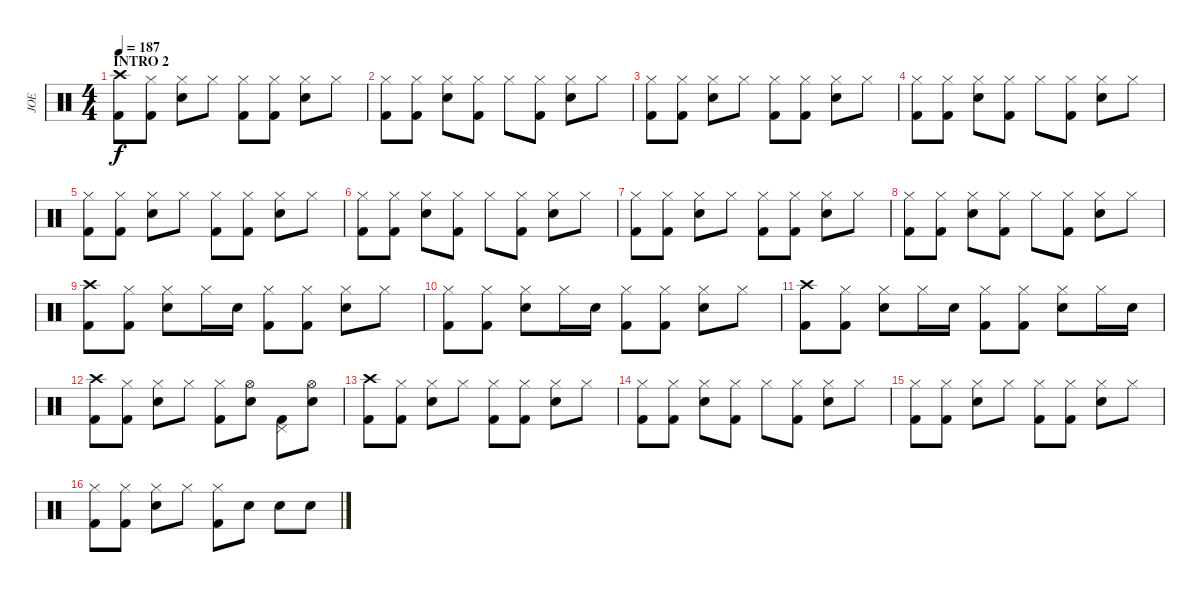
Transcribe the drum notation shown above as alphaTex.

\track ("JOE" "JOE") {instrument percussion}
\staff {score}
\articulation defaults
\ts (4 4)
\section ("" "INTRO 2")
\tempo 187
\clef neutral
\ks c
("Crash high (hit)" "Kick (hit) 2").8{dy f} ("Hi-Hat (closed)" "Kick (hit) 2").8 ("Hi-Hat (closed)" "Snare (hit) 2").8 "Hi-Hat (closed)".8 ("Hi-Hat (closed)" "Kick (hit) 2").8 ("Hi-Hat (closed)" "Kick (hit) 2").8 ("Hi-Hat (closed)" "Snare (hit) 2").8 "Hi-Hat (closed)".8 |
("Hi-Hat (closed)" "Kick (hit) 2").8 ("Hi-Hat (closed)" "Kick (hit) 2").8 ("Hi-Hat (closed)" "Snare (hit) 2").8 ("Hi-Hat (closed)" "Kick (hit) 2").8 "Hi-Hat (closed)".8 ("Hi-Hat (closed)" "Kick (hit) 2").8 ("Hi-Hat (closed)" "Snare (hit) 2").8 "Hi-Hat (closed)".8 |
("Hi-Hat (closed)" "Kick (hit) 2").8 ("Hi-Hat (closed)" "Kick (hit) 2").8 ("Hi-Hat (closed)" "Snare (hit) 2").8 "Hi-Hat (closed)".8 ("Hi-Hat (closed)" "Kick (hit) 2").8 ("Hi-Hat (closed)" "Kick (hit) 2").8 ("Hi-Hat (closed)" "Snare (hit) 2").8 "Hi-Hat (closed)".8 |
("Hi-Hat (closed)" "Kick (hit) 2").8 ("Hi-Hat (closed)" "Kick (hit) 2").8 ("Hi-Hat (closed)" "Snare (hit) 2").8 ("Hi-Hat (closed)" "Kick (hit) 2").8 "Hi-Hat (closed)".8 ("Hi-Hat (closed)" "Kick (hit) 2").8 ("Hi-Hat (closed)" "Snare (hit) 2").8 "Hi-Hat (closed)".8 |
("Hi-Hat (closed)" "Kick (hit) 2").8 ("Hi-Hat (closed)" "Kick (hit) 2").8 ("Hi-Hat (closed)" "Snare (hit) 2").8 "Hi-Hat (closed)".8 ("Hi-Hat (closed)" "Kick (hit) 2").8 ("Hi-Hat (closed)" "Kick (hit) 2").8 ("Hi-Hat (closed)" "Snare (hit) 2").8 "Hi-Hat (closed)".8 |
("Hi-Hat (closed)" "Kick (hit) 2").8 ("Hi-Hat (closed)" "Kick (hit) 2").8 ("Hi-Hat (closed)" "Snare (hit) 2").8 ("Hi-Hat (closed)" "Kick (hit) 2").8 "Hi-Hat (closed)".8 ("Hi-Hat (closed)" "Kick (hit) 2").8 ("Hi-Hat (closed)" "Snare (hit) 2").8 "Hi-Hat (closed)".8 |
("Hi-Hat (closed)" "Kick (hit) 2").8 ("Hi-Hat (closed)" "Kick (hit) 2").8 ("Hi-Hat (closed)" "Snare (hit) 2").8 "Hi-Hat (closed)".8 ("Hi-Hat (closed)" "Kick (hit) 2").8 ("Hi-Hat (closed)" "Kick (hit) 2").8 ("Hi-Hat (closed)" "Snare (hit) 2").8 "Hi-Hat (closed)".8 |
("Hi-Hat (closed)" "Kick (hit) 2").8 ("Hi-Hat (closed)" "Kick (hit) 2").8 ("Hi-Hat (closed)" "Snare (hit) 2").8 ("Hi-Hat (closed)" "Kick (hit) 2").8 "Hi-Hat (closed)".8 ("Hi-Hat (closed)" "Kick (hit) 2").8 ("Hi-Hat (closed)" "Snare (hit) 2").8 "Hi-Hat (closed)".8 |
("Crash high (hit)" "Kick (hit) 2").8 ("Hi-Hat (closed)" "Kick (hit) 2").8 ("Hi-Hat (closed)" "Snare (hit) 2").8 "Hi-Hat (closed)".16 "Snare (hit) 2".16 ("Hi-Hat (closed)" "Kick (hit) 2").8 ("Hi-Hat (closed)" "Kick (hit) 2").8 ("Hi-Hat (closed)" "Snare (hit) 2").8 "Hi-Hat (closed)".8 |
("Hi-Hat (closed)" "Kick (hit) 2").8 ("Hi-Hat (closed)" "Kick (hit) 2").8 ("Hi-Hat (closed)" "Snare (hit) 2").8 "Hi-Hat (closed)".16 "Snare (hit) 2".16 ("Hi-Hat (closed)" "Kick (hit) 2").8 ("Hi-Hat (closed)" "Kick (hit) 2").8 ("Hi-Hat (closed)" "Snare (hit) 2").8 "Hi-Hat (closed)".8 |
("Crash high (hit)" "Kick (hit) 2").8 ("Hi-Hat (closed)" "Kick (hit) 2").8 ("Hi-Hat (closed)" "Snare (hit) 2").8 "Hi-Hat (closed)".16 "Snare (hit) 2".16 ("Hi-Hat (closed)" "Kick (hit) 2").8 ("Hi-Hat (closed)" "Kick (hit) 2").8 ("Hi-Hat (closed)" "Snare (hit) 2").8 "Hi-Hat (closed)".16 "Snare (hit) 2".16 |
("Crash high (hit)" "Kick (hit) 2").8 ("Hi-Hat (closed)" "Kick (hit) 2").8 ("Hi-Hat (closed)" "Snare (hit) 2").8 "Hi-Hat (closed)".8 ("Hi-Hat (closed)" "Kick (hit) 2").8 ("Hi-Hat (open)" "Snare (hit) 2").8 ("Pedal Hi-Hat (hit)" "Kick (hit) 2").8 ("Hi-Hat (open)" "Snare (hit) 2").8 |
("Crash high (hit)" "Kick (hit) 2").8 ("Hi-Hat (closed)" "Kick (hit) 2").8 ("Hi-Hat (closed)" "Snare (hit) 2").8 "Hi-Hat (closed)".8 ("Hi-Hat (closed)" "Kick (hit) 2").8 ("Hi-Hat (closed)" "Kick (hit) 2").8 ("Hi-Hat (closed)" "Snare (hit) 2").8 "Hi-Hat (closed)".8 |
("Hi-Hat (closed)" "Kick (hit) 2").8 ("Hi-Hat (closed)" "Kick (hit) 2").8 ("Hi-Hat (closed)" "Snare (hit) 2").8 ("Hi-Hat (closed)" "Kick (hit) 2").8 "Hi-Hat (closed)".8 ("Hi-Hat (closed)" "Kick (hit) 2").8 ("Hi-Hat (closed)" "Snare (hit) 2").8 "Hi-Hat (closed)".8 |
("Hi-Hat (closed)" "Kick (hit) 2").8 ("Hi-Hat (closed)" "Kick (hit) 2").8 ("Hi-Hat (closed)" "Snare (hit) 2").8 "Hi-Hat (closed)".8 ("Hi-Hat (closed)" "Kick (hit) 2").8 ("Hi-Hat (closed)" "Kick (hit) 2").8 ("Hi-Hat (closed)" "Snare (hit) 2").8 "Hi-Hat (closed)".8 |
("Hi-Hat (closed)" "Kick (hit) 2").8 ("Hi-Hat (closed)" "Kick (hit) 2").8 ("Hi-Hat (closed)" "Snare (hit) 2").8 "Hi-Hat (closed)".8 ("Hi-Hat (closed)" "Kick (hit) 2").8 "Snare (hit) 2".8 "Snare (hit) 2".8 "Snare (hit) 2".8
